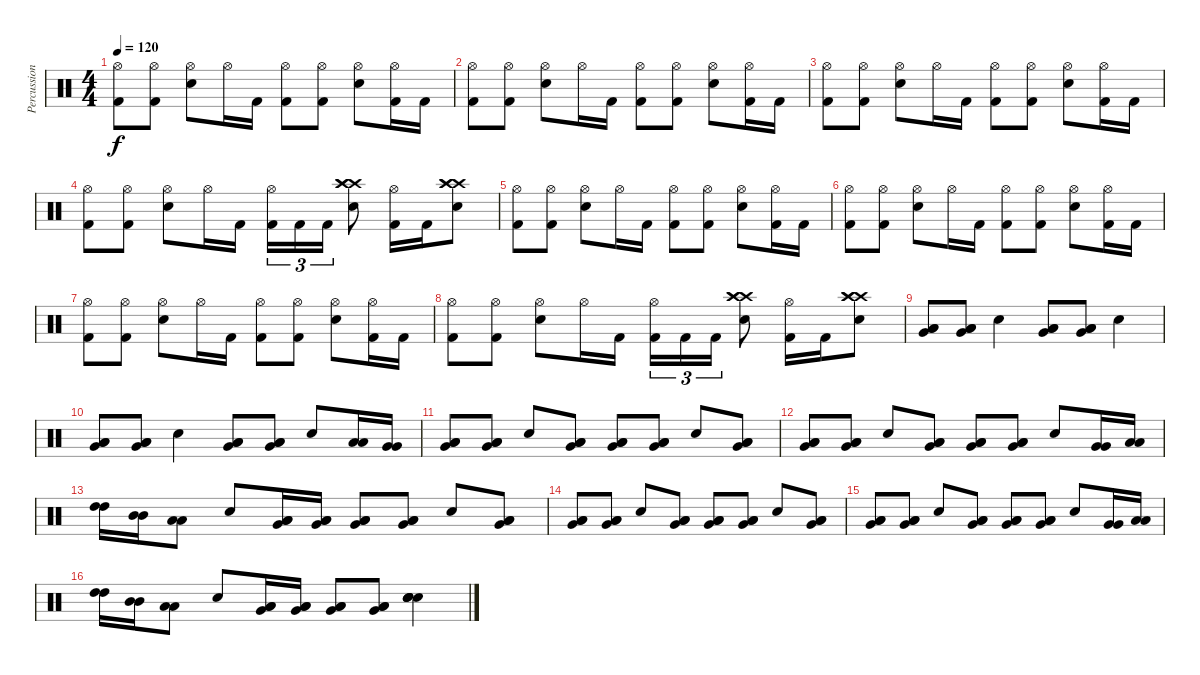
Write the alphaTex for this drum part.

\track ("Percussion" "Percussion") {instrument percussion}
\staff {score}
\articulation defaults
\ts (4 4)
\tempo 120
\clef neutral
\ks c
("Hi-Hat (open)" "Kick (hit) 2").8{dy f} ("Hi-Hat (open)" "Kick (hit) 2").8 ("Hi-Hat (open)" "Electric Snare (hit)").8 "Hi-Hat (open)".16 "Kick (hit) 2".16 ("Hi-Hat (open)" "Kick (hit) 2").8 ("Hi-Hat (open)" "Kick (hit) 2").8 ("Hi-Hat (open)" "Electric Snare (hit)").8 ("Hi-Hat (open)" "Kick (hit) 2").16 "Kick (hit) 2".16 |
("Hi-Hat (open)" "Kick (hit) 2").8 ("Hi-Hat (open)" "Kick (hit) 2").8 ("Hi-Hat (open)" "Electric Snare (hit)").8 "Hi-Hat (open)".16 "Kick (hit) 2".16 ("Hi-Hat (open)" "Kick (hit) 2").8 ("Hi-Hat (open)" "Kick (hit) 2").8 ("Hi-Hat (open)" "Electric Snare (hit)").8 ("Hi-Hat (open)" "Kick (hit) 2").16 "Kick (hit) 2".16 |
("Hi-Hat (open)" "Kick (hit) 2").8 ("Hi-Hat (open)" "Kick (hit) 2").8 ("Hi-Hat (open)" "Electric Snare (hit)").8 "Hi-Hat (open)".16 "Kick (hit) 2".16 ("Hi-Hat (open)" "Kick (hit) 2").8 ("Hi-Hat (open)" "Kick (hit) 2").8 ("Hi-Hat (open)" "Electric Snare (hit)").8 ("Hi-Hat (open)" "Kick (hit) 2").16 "Kick (hit) 2".16 |
("Hi-Hat (open)" "Kick (hit) 2").8 ("Hi-Hat (open)" "Kick (hit) 2").8 ("Hi-Hat (open)" "Electric Snare (hit)").8 "Hi-Hat (open)".16 "Kick (hit) 2".16 ("Hi-Hat (open)" "Kick (hit) 2").16{tu (3 2)} "Kick (hit) 2".16{tu (3 2)} "Kick (hit) 2".16{tu (3 2)} ("Crash high (hit)" "Crash high (hit)" "Crash high (hit)" "Electric Snare (hit)").8 ("Hi-Hat (open)" "Kick (hit) 2").16 "Kick (hit) 2".16 ("Crash high (hit)" "Crash high (hit)" "Crash high (hit)" "Electric Snare (hit)").8 |
("Hi-Hat (open)" "Kick (hit) 2").8 ("Hi-Hat (open)" "Kick (hit) 2").8 ("Hi-Hat (open)" "Electric Snare (hit)").8 "Hi-Hat (open)".16 "Kick (hit) 2".16 ("Hi-Hat (open)" "Kick (hit) 2").8 ("Hi-Hat (open)" "Kick (hit) 2").8 ("Hi-Hat (open)" "Electric Snare (hit)").8 ("Hi-Hat (open)" "Kick (hit) 2").16 "Kick (hit) 2".16 |
("Hi-Hat (open)" "Kick (hit) 2").8 ("Hi-Hat (open)" "Kick (hit) 2").8 ("Hi-Hat (open)" "Electric Snare (hit)").8 "Hi-Hat (open)".16 "Kick (hit) 2".16 ("Hi-Hat (open)" "Kick (hit) 2").8 ("Hi-Hat (open)" "Kick (hit) 2").8 ("Hi-Hat (open)" "Electric Snare (hit)").8 ("Hi-Hat (open)" "Kick (hit) 2").16 "Kick (hit) 2".16 |
("Hi-Hat (open)" "Kick (hit) 2").8 ("Hi-Hat (open)" "Kick (hit) 2").8 ("Hi-Hat (open)" "Electric Snare (hit)").8 "Hi-Hat (open)".16 "Kick (hit) 2".16 ("Hi-Hat (open)" "Kick (hit) 2").8 ("Hi-Hat (open)" "Kick (hit) 2").8 ("Hi-Hat (open)" "Electric Snare (hit)").8 ("Hi-Hat (open)" "Kick (hit) 2").16 "Kick (hit) 2".16 |
("Hi-Hat (open)" "Kick (hit) 2").8 ("Hi-Hat (open)" "Kick (hit) 2").8 ("Hi-Hat (open)" "Electric Snare (hit)").8 "Hi-Hat (open)".16 "Kick (hit) 2".16 ("Hi-Hat (open)" "Kick (hit) 2").16{tu (3 2)} "Kick (hit) 2".16{tu (3 2)} "Kick (hit) 2".16{tu (3 2)} ("Crash high (hit)" "Crash high (hit)" "Crash high (hit)" "Electric Snare (hit)").8 ("Hi-Hat (open)" "Kick (hit) 2").16 "Kick (hit) 2".16 ("Crash high (hit)" "Crash high (hit)" "Crash high (hit)" "Electric Snare (hit)").8 |
("Very Low Tom (hit)" "Low Tom (hit)" "Low Tom (hit)").8 ("Very Low Tom (hit)" "Low Tom (hit)" "Low Tom (hit)").8 "Electric Snare (hit)".4 ("Very Low Tom (hit)" "Low Tom (hit)" "Low Tom (hit)").8 ("Very Low Tom (hit)" "Low Tom (hit)" "Low Tom (hit)").8 "Electric Snare (hit)".4 |
("Very Low Tom (hit)" "Low Tom (hit)" "Low Tom (hit)").8 ("Very Low Tom (hit)" "Low Tom (hit)" "Low Tom (hit)").8 "Electric Snare (hit)".4 ("Very Low Tom (hit)" "Low Tom (hit)" "Low Tom (hit)").8 ("Very Low Tom (hit)" "Low Tom (hit)" "Low Tom (hit)").8 "Electric Snare (hit)".8 ("Low Tom (hit)" "Low Tom (hit)").16 ("Very Low Tom (hit)" "Very Low Tom (hit)").16 |
("Very Low Tom (hit)" "Low Tom (hit)" "Low Tom (hit)").8 ("Very Low Tom (hit)" "Low Tom (hit)" "Low Tom (hit)").8 "Electric Snare (hit)".8 ("Very Low Tom (hit)" "Low Tom (hit)" "Low Tom (hit)").8 ("Very Low Tom (hit)" "Low Tom (hit)" "Low Tom (hit)").8 ("Very Low Tom (hit)" "Low Tom (hit)" "Low Tom (hit)").8 "Electric Snare (hit)".8 ("Very Low Tom (hit)" "Low Tom (hit)" "Low Tom (hit)").8 |
("Very Low Tom (hit)" "Low Tom (hit)" "Low Tom (hit)").8 ("Very Low Tom (hit)" "Low Tom (hit)" "Low Tom (hit)").8 "Electric Snare (hit)".8 ("Very Low Tom (hit)" "Low Tom (hit)" "Low Tom (hit)").8 ("Very Low Tom (hit)" "Low Tom (hit)" "Low Tom (hit)").8 ("Very Low Tom (hit)" "Low Tom (hit)" "Low Tom (hit)").8 "Electric Snare (hit)".8 ("Very Low Tom (hit)" "Very Low Tom (hit)").16 ("Low Tom (hit)" "Low Tom (hit)").16 |
("High Tom (hit)" "High Tom (hit)").16 ("Mid Tom (hit)" "Mid Tom (hit)").16 ("Low Tom (hit)" "Low Tom (hit)").8 "Electric Snare (hit)".8 ("Very Low Tom (hit)" "Low Tom (hit)" "Low Tom (hit)").16 ("Very Low Tom (hit)" "Low Tom (hit)" "Low Tom (hit)").16 ("Very Low Tom (hit)" "Low Tom (hit)" "Low Tom (hit)").8 ("Very Low Tom (hit)" "Low Tom (hit)" "Low Tom (hit)").8 "Electric Snare (hit)".8 ("Very Low Tom (hit)" "Low Tom (hit)" "Low Tom (hit)").8 |
("Very Low Tom (hit)" "Low Tom (hit)" "Low Tom (hit)").8 ("Very Low Tom (hit)" "Low Tom (hit)" "Low Tom (hit)").8 "Electric Snare (hit)".8 ("Very Low Tom (hit)" "Low Tom (hit)" "Low Tom (hit)").8 ("Very Low Tom (hit)" "Low Tom (hit)" "Low Tom (hit)").8 ("Very Low Tom (hit)" "Low Tom (hit)" "Low Tom (hit)").8 "Electric Snare (hit)".8 ("Very Low Tom (hit)" "Low Tom (hit)" "Low Tom (hit)").8 |
("Very Low Tom (hit)" "Low Tom (hit)" "Low Tom (hit)").8 ("Very Low Tom (hit)" "Low Tom (hit)" "Low Tom (hit)").8 "Electric Snare (hit)".8 ("Very Low Tom (hit)" "Low Tom (hit)" "Low Tom (hit)").8 ("Very Low Tom (hit)" "Low Tom (hit)" "Low Tom (hit)").8 ("Very Low Tom (hit)" "Low Tom (hit)" "Low Tom (hit)").8 "Electric Snare (hit)".8 ("Very Low Tom (hit)" "Very Low Tom (hit)").16 ("Low Tom (hit)" "Low Tom (hit)").16 |
("High Tom (hit)" "High Tom (hit)").16 ("Mid Tom (hit)" "Mid Tom (hit)").16 ("Low Tom (hit)" "Low Tom (hit)").8 "Electric Snare (hit)".8 ("Very Low Tom (hit)" "Low Tom (hit)" "Low Tom (hit)").16 ("Very Low Tom (hit)" "Low Tom (hit)" "Low Tom (hit)").16 ("Very Low Tom (hit)" "Low Tom (hit)" "Low Tom (hit)").8 ("Very Low Tom (hit)" "Low Tom (hit)" "Low Tom (hit)").8 ("Electric Snare (hit)" "Electric Snare (hit)" "Electric Snare (hit)" "Electric Snare (hit)").4
